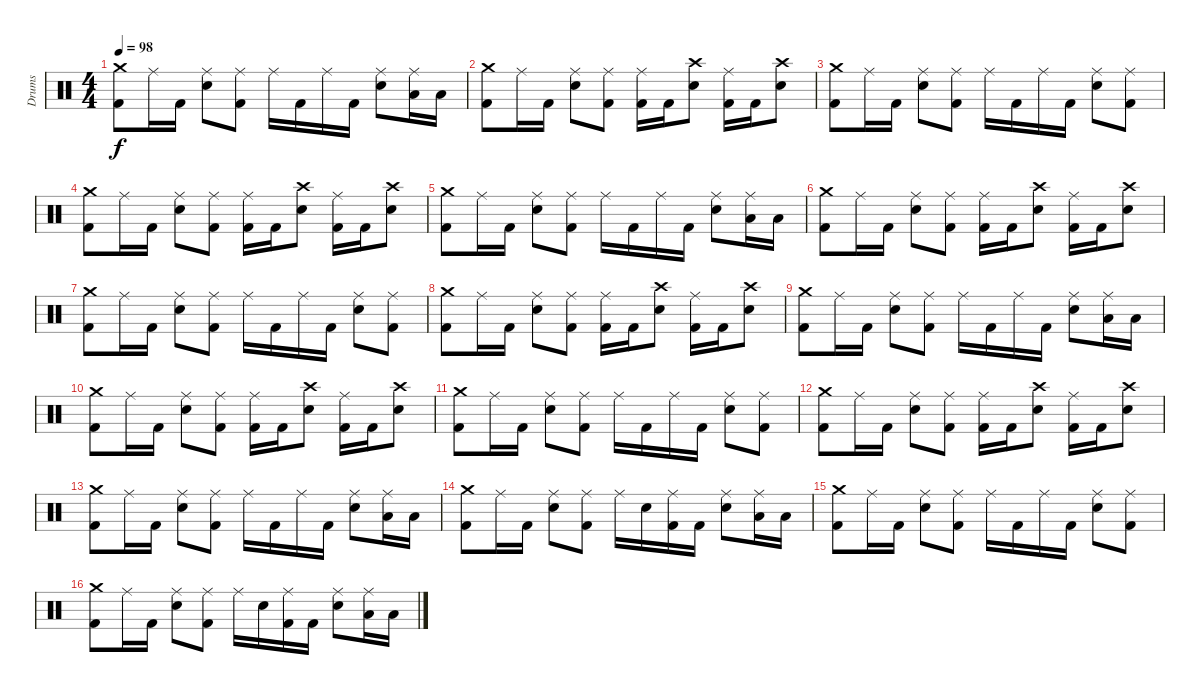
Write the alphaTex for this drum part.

\track ("Drums" "Drums") {instrument percussion}
\staff {score}
\articulation defaults
\ts (4 4)
\tempo 98
\clef neutral
\ks c
("Crash medium (hit)" "Kick (hit) 2").8{dy f} "Ride (middle)".16 "Kick (hit) 2".16 ("Ride (middle)" "Snare (hit) 2").8 ("Ride (middle)" "Kick (hit) 2").8 "Ride (middle)".16 "Kick (hit) 2".16 "Ride (middle)".16 "Kick (hit) 2".16 ("Ride (middle)" "Snare (hit) 2").8 ("Ride (middle)" "Low Tom (hit)").16 "Low Tom (hit)".16 |
("Crash medium (hit)" "Kick (hit) 2").8 "Ride (middle)".16 "Kick (hit) 2".16 ("Ride (middle)" "Snare (hit) 2").8 ("Ride (middle)" "Kick (hit) 2").8 ("Ride (middle)" "Kick (hit) 2").16 "Kick (hit) 2".16 ("Crash high (hit)" "Snare (hit) 2").8 ("Ride (middle)" "Kick (hit) 2").16 "Kick (hit) 2".16 ("Crash high (hit)" "Snare (hit) 2").8 |
("Crash medium (hit)" "Kick (hit) 2").8 "Ride (middle)".16 "Kick (hit) 2".16 ("Ride (middle)" "Snare (hit) 2").8 ("Ride (middle)" "Kick (hit) 2").8 "Ride (middle)".16 "Kick (hit) 2".16 "Ride (middle)".16 "Kick (hit) 2".16 ("Ride (middle)" "Snare (hit) 2").8 ("Ride (middle)" "Kick (hit) 2").8 |
("Crash medium (hit)" "Kick (hit) 2").8 "Ride (middle)".16 "Kick (hit) 2".16 ("Ride (middle)" "Snare (hit) 2").8 ("Ride (middle)" "Kick (hit) 2").8 ("Ride (middle)" "Kick (hit) 2").16 "Kick (hit) 2".16 ("Crash high (hit)" "Snare (hit) 2").8 ("Ride (middle)" "Kick (hit) 2").16 "Kick (hit) 2".16 ("Crash high (hit)" "Snare (hit) 2").8 |
("Crash medium (hit)" "Kick (hit) 2").8 "Ride (middle)".16 "Kick (hit) 2".16 ("Ride (middle)" "Snare (hit) 2").8 ("Ride (middle)" "Kick (hit) 2").8 "Ride (middle)".16 "Kick (hit) 2".16 "Ride (middle)".16 "Kick (hit) 2".16 ("Ride (middle)" "Snare (hit) 2").8 ("Ride (middle)" "Low Tom (hit)").16 "Low Tom (hit)".16 |
("Crash medium (hit)" "Kick (hit) 2").8 "Ride (middle)".16 "Kick (hit) 2".16 ("Ride (middle)" "Snare (hit) 2").8 ("Ride (middle)" "Kick (hit) 2").8 ("Ride (middle)" "Kick (hit) 2").16 "Kick (hit) 2".16 ("Crash high (hit)" "Snare (hit) 2").8 ("Ride (middle)" "Kick (hit) 2").16 "Kick (hit) 2".16 ("Crash high (hit)" "Snare (hit) 2").8 |
("Crash medium (hit)" "Kick (hit) 2").8 "Ride (middle)".16 "Kick (hit) 2".16 ("Ride (middle)" "Snare (hit) 2").8 ("Ride (middle)" "Kick (hit) 2").8 "Ride (middle)".16 "Kick (hit) 2".16 "Ride (middle)".16 "Kick (hit) 2".16 ("Ride (middle)" "Snare (hit) 2").8 ("Ride (middle)" "Kick (hit) 2").8 |
("Crash medium (hit)" "Kick (hit) 2").8 "Ride (middle)".16 "Kick (hit) 2".16 ("Ride (middle)" "Snare (hit) 2").8 ("Ride (middle)" "Kick (hit) 2").8 ("Ride (middle)" "Kick (hit) 2").16 "Kick (hit) 2".16 ("Crash high (hit)" "Snare (hit) 2").8 ("Ride (middle)" "Kick (hit) 2").16 "Kick (hit) 2".16 ("Crash high (hit)" "Snare (hit) 2").8 |
("Crash medium (hit)" "Kick (hit) 2").8 "Ride (middle)".16 "Kick (hit) 2".16 ("Ride (middle)" "Snare (hit) 2").8 ("Ride (middle)" "Kick (hit) 2").8 "Ride (middle)".16 "Kick (hit) 2".16 "Ride (middle)".16 "Kick (hit) 2".16 ("Ride (middle)" "Snare (hit) 2").8 ("Ride (middle)" "Low Tom (hit)").16 "Low Tom (hit)".16 |
("Crash medium (hit)" "Kick (hit) 2").8 "Ride (middle)".16 "Kick (hit) 2".16 ("Ride (middle)" "Snare (hit) 2").8 ("Ride (middle)" "Kick (hit) 2").8 ("Ride (middle)" "Kick (hit) 2").16 "Kick (hit) 2".16 ("Crash high (hit)" "Snare (hit) 2").8 ("Ride (middle)" "Kick (hit) 2").16 "Kick (hit) 2".16 ("Crash high (hit)" "Snare (hit) 2").8 |
("Crash medium (hit)" "Kick (hit) 2").8 "Ride (middle)".16 "Kick (hit) 2".16 ("Ride (middle)" "Snare (hit) 2").8 ("Ride (middle)" "Kick (hit) 2").8 "Ride (middle)".16 "Kick (hit) 2".16 "Ride (middle)".16 "Kick (hit) 2".16 ("Ride (middle)" "Snare (hit) 2").8 ("Ride (middle)" "Kick (hit) 2").8 |
("Crash medium (hit)" "Kick (hit) 2").8 "Ride (middle)".16 "Kick (hit) 2".16 ("Ride (middle)" "Snare (hit) 2").8 ("Ride (middle)" "Kick (hit) 2").8 ("Ride (middle)" "Kick (hit) 2").16 "Kick (hit) 2".16 ("Crash high (hit)" "Snare (hit) 2").8 ("Ride (middle)" "Kick (hit) 2").16 "Kick (hit) 2".16 ("Crash high (hit)" "Snare (hit) 2").8 |
("Crash medium (hit)" "Kick (hit) 2").8 "Ride (middle)".16 "Kick (hit) 2".16 ("Ride (middle)" "Snare (hit) 2").8 ("Ride (middle)" "Kick (hit) 2").8 "Ride (middle)".16 "Kick (hit) 2".16 "Ride (middle)".16 "Kick (hit) 2".16 ("Ride (middle)" "Snare (hit) 2").8 ("Ride (middle)" "Low Tom (hit)").16 "Low Tom (hit)".16 |
("Crash medium (hit)" "Kick (hit) 2").8 "Ride (middle)".16 "Kick (hit) 2".16 ("Ride (middle)" "Snare (hit) 2").8 ("Ride (middle)" "Kick (hit) 2").8 "Ride (middle)".16 "Snare (hit) 2".16 ("Ride (middle)" "Kick (hit) 2").16 "Kick (hit) 2".16 ("Ride (middle)" "Snare (hit) 2").8 ("Ride (middle)" "Low Tom (hit)").16 "Low Tom (hit)".16 |
("Crash medium (hit)" "Kick (hit) 2").8 "Ride (middle)".16 "Kick (hit) 2".16 ("Ride (middle)" "Snare (hit) 2").8 ("Ride (middle)" "Kick (hit) 2").8 "Ride (middle)".16 "Kick (hit) 2".16 "Ride (middle)".16 "Kick (hit) 2".16 ("Ride (middle)" "Snare (hit) 2").8 ("Ride (middle)" "Kick (hit) 2").8 |
("Crash medium (hit)" "Kick (hit) 2").8 "Ride (middle)".16 "Kick (hit) 2".16 ("Ride (middle)" "Snare (hit) 2").8 ("Ride (middle)" "Kick (hit) 2").8 "Ride (middle)".16 "Snare (hit) 2".16 ("Ride (middle)" "Kick (hit) 2").16 "Kick (hit) 2".16 ("Ride (middle)" "Snare (hit) 2").8 ("Ride (middle)" "Low Tom (hit)").16 "Low Tom (hit)".16
